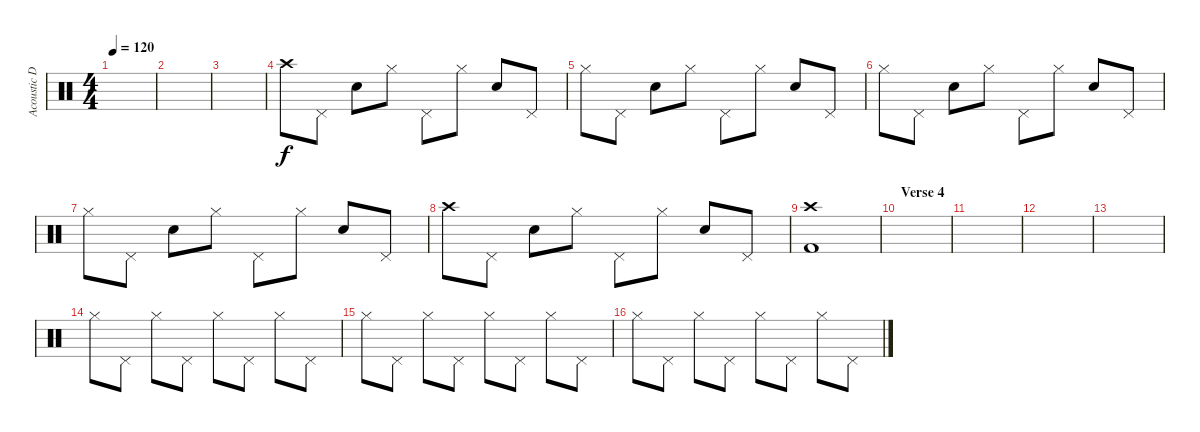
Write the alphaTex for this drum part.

\track ("Acoustic Drums" "Acoustic D") {instrument percussion}
\staff {score}
\articulation defaults
\ts (4 4)
\tempo 120
\clef neutral
\ks c
|
|
|
"Crash high (hit)".8 "Pedal Hi-Hat (hit)".8 "Electric Snare (hit)".8 "Hi-Hat (closed)".8 "Pedal Hi-Hat (hit)".8 "Hi-Hat (closed)".8 "Electric Snare (hit)".8 "Pedal Hi-Hat (hit)".8 |
"Hi-Hat (closed)".8 "Pedal Hi-Hat (hit)".8 "Electric Snare (hit)".8 "Hi-Hat (closed)".8 "Pedal Hi-Hat (hit)".8 "Hi-Hat (closed)".8 "Electric Snare (hit)".8 "Pedal Hi-Hat (hit)".8 |
"Hi-Hat (closed)".8 "Pedal Hi-Hat (hit)".8 "Electric Snare (hit)".8 "Hi-Hat (closed)".8 "Pedal Hi-Hat (hit)".8 "Hi-Hat (closed)".8 "Electric Snare (hit)".8 "Pedal Hi-Hat (hit)".8 |
"Hi-Hat (closed)".8 "Pedal Hi-Hat (hit)".8 "Electric Snare (hit)".8 "Hi-Hat (closed)".8 "Pedal Hi-Hat (hit)".8 "Hi-Hat (closed)".8 "Electric Snare (hit)".8 "Pedal Hi-Hat (hit)".8 |
"Crash high (hit)".8 "Pedal Hi-Hat (hit)".8 "Electric Snare (hit)".8 "Hi-Hat (closed)".8 "Pedal Hi-Hat (hit)".8 "Hi-Hat (closed)".8 "Electric Snare (hit)".8 "Pedal Hi-Hat (hit)".8 |
("Kick (hit) 2" "Crash high (hit)").1 |
\section ("" "Verse 4")
|
|
|
|
"Hi-Hat (closed)".8 "Pedal Hi-Hat (hit)".8 "Hi-Hat (closed)".8 "Pedal Hi-Hat (hit)".8 "Hi-Hat (closed)".8 "Pedal Hi-Hat (hit)".8 "Hi-Hat (closed)".8 "Pedal Hi-Hat (hit)".8 |
"Hi-Hat (closed)".8 "Pedal Hi-Hat (hit)".8 "Hi-Hat (closed)".8 "Pedal Hi-Hat (hit)".8 "Hi-Hat (closed)".8 "Pedal Hi-Hat (hit)".8 "Hi-Hat (closed)".8 "Pedal Hi-Hat (hit)".8 |
"Hi-Hat (closed)".8 "Pedal Hi-Hat (hit)".8 "Hi-Hat (closed)".8 "Pedal Hi-Hat (hit)".8 "Hi-Hat (closed)".8 "Pedal Hi-Hat (hit)".8 "Hi-Hat (closed)".8 "Pedal Hi-Hat (hit)".8
